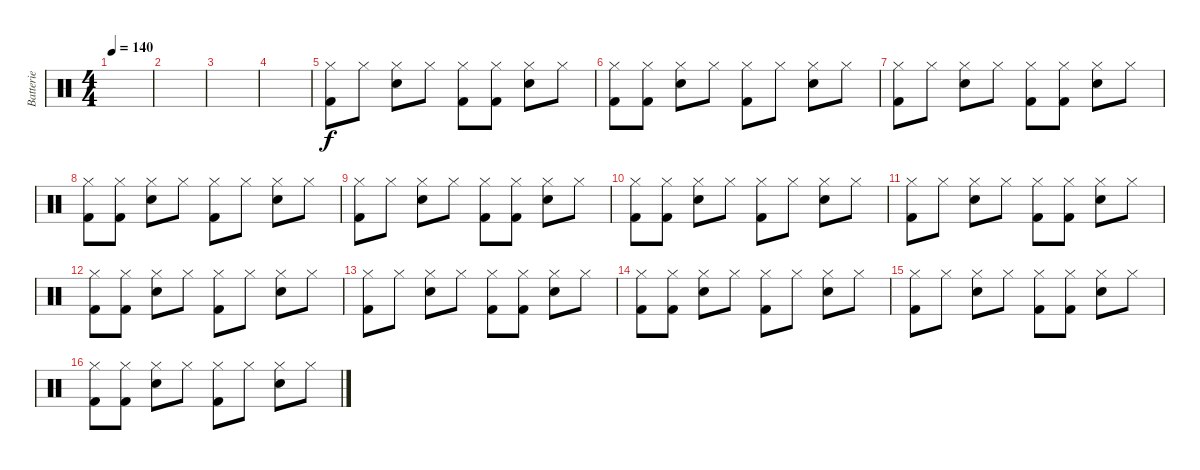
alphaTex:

\track ("Batterie" "Batterie") {instrument percussion}
\staff {score}
\articulation defaults
\ts (4 4)
\tempo 140
\clef neutral
\ks c
|
|
|
|
("Kick (hit) 2" "Hi-Hat (closed)").8 "Hi-Hat (closed)".8 ("Electric Snare (hit)" "Hi-Hat (closed)").8 "Hi-Hat (closed)".8 ("Kick (hit) 2" "Hi-Hat (closed)").8 ("Kick (hit) 2" "Hi-Hat (closed)").8 ("Electric Snare (hit)" "Hi-Hat (closed)").8 "Hi-Hat (closed)".8 |
("Kick (hit) 2" "Hi-Hat (closed)").8 ("Kick (hit) 2" "Hi-Hat (closed)").8 ("Electric Snare (hit)" "Hi-Hat (closed)").8 "Hi-Hat (closed)".8 ("Kick (hit) 2" "Hi-Hat (closed)").8 "Hi-Hat (closed)".8 ("Electric Snare (hit)" "Hi-Hat (closed)").8 "Hi-Hat (closed)".8 |
("Kick (hit) 2" "Hi-Hat (closed)").8 "Hi-Hat (closed)".8 ("Electric Snare (hit)" "Hi-Hat (closed)").8 "Hi-Hat (closed)".8 ("Kick (hit) 2" "Hi-Hat (closed)").8 ("Kick (hit) 2" "Hi-Hat (closed)").8 ("Electric Snare (hit)" "Hi-Hat (closed)").8 "Hi-Hat (closed)".8 |
("Kick (hit) 2" "Hi-Hat (closed)").8 ("Kick (hit) 2" "Hi-Hat (closed)").8 ("Electric Snare (hit)" "Hi-Hat (closed)").8 "Hi-Hat (closed)".8 ("Kick (hit) 2" "Hi-Hat (closed)").8 "Hi-Hat (closed)".8 ("Electric Snare (hit)" "Hi-Hat (closed)").8 "Hi-Hat (closed)".8 |
("Kick (hit) 2" "Hi-Hat (closed)").8 "Hi-Hat (closed)".8 ("Electric Snare (hit)" "Hi-Hat (closed)").8 "Hi-Hat (closed)".8 ("Kick (hit) 2" "Hi-Hat (closed)").8 ("Kick (hit) 2" "Hi-Hat (closed)").8 ("Electric Snare (hit)" "Hi-Hat (closed)").8 "Hi-Hat (closed)".8 |
("Kick (hit) 2" "Hi-Hat (closed)").8 ("Kick (hit) 2" "Hi-Hat (closed)").8 ("Electric Snare (hit)" "Hi-Hat (closed)").8 "Hi-Hat (closed)".8 ("Kick (hit) 2" "Hi-Hat (closed)").8 "Hi-Hat (closed)".8 ("Electric Snare (hit)" "Hi-Hat (closed)").8 "Hi-Hat (closed)".8 |
("Kick (hit) 2" "Hi-Hat (closed)").8 "Hi-Hat (closed)".8 ("Electric Snare (hit)" "Hi-Hat (closed)").8 "Hi-Hat (closed)".8 ("Kick (hit) 2" "Hi-Hat (closed)").8 ("Kick (hit) 2" "Hi-Hat (closed)").8 ("Electric Snare (hit)" "Hi-Hat (closed)").8 "Hi-Hat (closed)".8 |
("Kick (hit) 2" "Hi-Hat (closed)").8 ("Kick (hit) 2" "Hi-Hat (closed)").8 ("Electric Snare (hit)" "Hi-Hat (closed)").8 "Hi-Hat (closed)".8 ("Kick (hit) 2" "Hi-Hat (closed)").8 "Hi-Hat (closed)".8 ("Electric Snare (hit)" "Hi-Hat (closed)").8 "Hi-Hat (closed)".8 |
("Kick (hit) 2" "Hi-Hat (closed)").8 "Hi-Hat (closed)".8 ("Electric Snare (hit)" "Hi-Hat (closed)").8 "Hi-Hat (closed)".8 ("Kick (hit) 2" "Hi-Hat (closed)").8 ("Kick (hit) 2" "Hi-Hat (closed)").8 ("Electric Snare (hit)" "Hi-Hat (closed)").8 "Hi-Hat (closed)".8 |
("Kick (hit) 2" "Hi-Hat (closed)").8 ("Kick (hit) 2" "Hi-Hat (closed)").8 ("Electric Snare (hit)" "Hi-Hat (closed)").8 "Hi-Hat (closed)".8 ("Kick (hit) 2" "Hi-Hat (closed)").8 "Hi-Hat (closed)".8 ("Electric Snare (hit)" "Hi-Hat (closed)").8 "Hi-Hat (closed)".8 |
("Kick (hit) 2" "Hi-Hat (closed)").8 "Hi-Hat (closed)".8 ("Electric Snare (hit)" "Hi-Hat (closed)").8 "Hi-Hat (closed)".8 ("Kick (hit) 2" "Hi-Hat (closed)").8 ("Kick (hit) 2" "Hi-Hat (closed)").8 ("Electric Snare (hit)" "Hi-Hat (closed)").8 "Hi-Hat (closed)".8 |
("Kick (hit) 2" "Hi-Hat (closed)").8 ("Kick (hit) 2" "Hi-Hat (closed)").8 ("Electric Snare (hit)" "Hi-Hat (closed)").8 "Hi-Hat (closed)".8 ("Kick (hit) 2" "Hi-Hat (closed)").8 "Hi-Hat (closed)".8 ("Electric Snare (hit)" "Hi-Hat (closed)").8 "Hi-Hat (closed)".8
